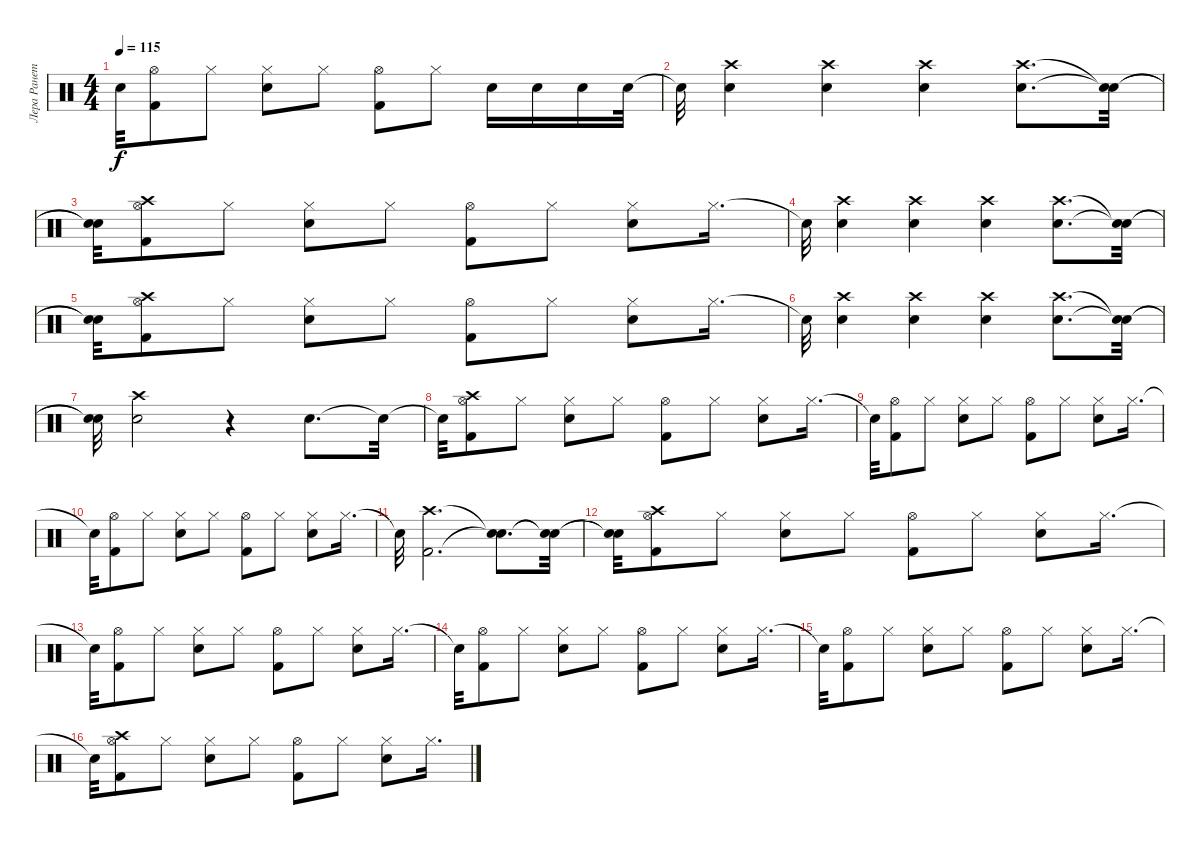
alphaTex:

\track ("Лера Ранетка" "Лера Ранет") {instrument percussion}
\staff {score}
\articulation defaults
\ts (4 4)
\tempo 115
\clef neutral
\ks c "Snare (hit)"{t}.32{dy f}
("Hi-Hat (open)" "Kick (hit) 2").8 "Hi-Hat (closed)".8 ("Hi-Hat (closed)" "Electric Snare (hit)").8 "Hi-Hat (closed)".8 ("Hi-Hat (open)" "Kick (hit) 2").8 "Hi-Hat (closed)".8 "Electric Snare (hit)".16 "Electric Snare (hit)".16 "Electric Snare (hit)".16 "Electric Snare (hit)".32 |
"Snare (hit)"{t}.32 ("Electric Snare (hit)" "Crash high (hit)").4 ("Electric Snare (hit)" "Crash high (hit)").4 ("Electric Snare (hit)" "Crash high (hit)").4 ("Electric Snare (hit)" "Crash high (hit)").8{d} ("Snare (hit)"{t} "Snare (hit)"{t}).32 |
("Snare (hit)"{t} "Snare (hit)"{t}).32 ("Hi-Hat (open)" "Kick (hit) 2" "Crash high (hit)").8 "Hi-Hat (closed)".8 ("Hi-Hat (closed)" "Electric Snare (hit)").8 "Hi-Hat (closed)".8 ("Hi-Hat (open)" "Kick (hit) 2").8 "Hi-Hat (closed)".8 ("Hi-Hat (closed)" "Electric Snare (hit)").8 "Hi-Hat (closed)".16{d} |
"Snare (hit)"{t}.32 ("Electric Snare (hit)" "Crash high (hit)").4 ("Electric Snare (hit)" "Crash high (hit)").4 ("Electric Snare (hit)" "Crash high (hit)").4 ("Electric Snare (hit)" "Crash high (hit)").8{d} ("Snare (hit)"{t} "Snare (hit)"{t}).32 |
("Snare (hit)"{t} "Snare (hit)"{t}).32 ("Hi-Hat (open)" "Kick (hit) 2" "Crash high (hit)").8 "Hi-Hat (closed)".8 ("Hi-Hat (closed)" "Electric Snare (hit)").8 "Hi-Hat (closed)".8 ("Hi-Hat (open)" "Kick (hit) 2").8 "Hi-Hat (closed)".8 ("Hi-Hat (closed)" "Electric Snare (hit)").8 "Hi-Hat (closed)".16{d} |
"Snare (hit)"{t}.32 ("Electric Snare (hit)" "Crash high (hit)").4 ("Electric Snare (hit)" "Crash high (hit)").4 ("Electric Snare (hit)" "Crash high (hit)").4 ("Electric Snare (hit)" "Crash high (hit)").8{d} ("Snare (hit)"{t} "Snare (hit)"{t}).32 |
("Snare (hit)"{t} "Snare (hit)"{t}).32 ("Electric Snare (hit)" "Crash high (hit)").2 r.4 "Electric Snare (hit)".8{d} "Snare (hit)"{t}.32 |
"Snare (hit)"{t}.32 ("Hi-Hat (open)" "Kick (hit) 2" "Crash high (hit)").8 "Hi-Hat (closed)".8 ("Hi-Hat (closed)" "Electric Snare (hit)").8 "Hi-Hat (closed)".8 ("Hi-Hat (open)" "Kick (hit) 2").8 "Hi-Hat (closed)".8 ("Hi-Hat (closed)" "Electric Snare (hit)").8 "Hi-Hat (closed)".16{d} |
"Snare (hit)"{t}.32 ("Hi-Hat (open)" "Kick (hit) 2").8 "Hi-Hat (closed)".8 ("Hi-Hat (closed)" "Electric Snare (hit)").8 "Hi-Hat (closed)".8 ("Hi-Hat (open)" "Kick (hit) 2").8 "Hi-Hat (closed)".8 ("Hi-Hat (closed)" "Electric Snare (hit)").8 "Hi-Hat (closed)".16{d} |
"Snare (hit)"{t}.32 ("Hi-Hat (open)" "Kick (hit) 2").8 "Hi-Hat (closed)".8 ("Hi-Hat (closed)" "Electric Snare (hit)").8 "Hi-Hat (closed)".8 ("Hi-Hat (open)" "Kick (hit) 2").8 "Hi-Hat (closed)".8 ("Hi-Hat (closed)" "Electric Snare (hit)").8 "Hi-Hat (closed)".16{d} |
"Snare (hit)"{t}.32 ("Crash high (hit)" "Kick (hit) 2").2{d} ("Snare (hit)"{t} "Snare (hit)"{t}).8{d} ("Snare (hit)"{t} "Snare (hit)"{t}).32 |
("Snare (hit)"{t} "Snare (hit)"{t}).32 ("Hi-Hat (open)" "Kick (hit) 2" "Crash high (hit)").8 "Hi-Hat (closed)".8 ("Hi-Hat (closed)" "Electric Snare (hit)").8 "Hi-Hat (closed)".8 ("Hi-Hat (open)" "Kick (hit) 2").8 "Hi-Hat (closed)".8 ("Hi-Hat (closed)" "Electric Snare (hit)").8 "Hi-Hat (closed)".16{d} |
"Snare (hit)"{t}.32 ("Hi-Hat (open)" "Kick (hit) 2").8 "Hi-Hat (closed)".8 ("Hi-Hat (closed)" "Electric Snare (hit)").8 "Hi-Hat (closed)".8 ("Hi-Hat (open)" "Kick (hit) 2").8 "Hi-Hat (closed)".8 ("Hi-Hat (closed)" "Electric Snare (hit)").8 "Hi-Hat (closed)".16{d} |
"Snare (hit)"{t}.32 ("Hi-Hat (open)" "Kick (hit) 2").8 "Hi-Hat (closed)".8 ("Hi-Hat (closed)" "Electric Snare (hit)").8 "Hi-Hat (closed)".8 ("Hi-Hat (open)" "Kick (hit) 2").8 "Hi-Hat (closed)".8 ("Hi-Hat (closed)" "Electric Snare (hit)").8 "Hi-Hat (closed)".16{d} |
"Snare (hit)"{t}.32 ("Hi-Hat (open)" "Kick (hit) 2").8 "Hi-Hat (closed)".8 ("Hi-Hat (closed)" "Electric Snare (hit)").8 "Hi-Hat (closed)".8 ("Hi-Hat (open)" "Kick (hit) 2").8 "Hi-Hat (closed)".8 ("Hi-Hat (closed)" "Electric Snare (hit)").8 "Hi-Hat (closed)".16{d} |
"Snare (hit)"{t}.32 ("Hi-Hat (open)" "Kick (hit) 2" "Crash high (hit)").8 "Hi-Hat (closed)".8 ("Hi-Hat (closed)" "Electric Snare (hit)").8 "Hi-Hat (closed)".8 ("Hi-Hat (open)" "Kick (hit) 2").8 "Hi-Hat (closed)".8 ("Hi-Hat (closed)" "Electric Snare (hit)").8 "Hi-Hat (closed)".16{d}
